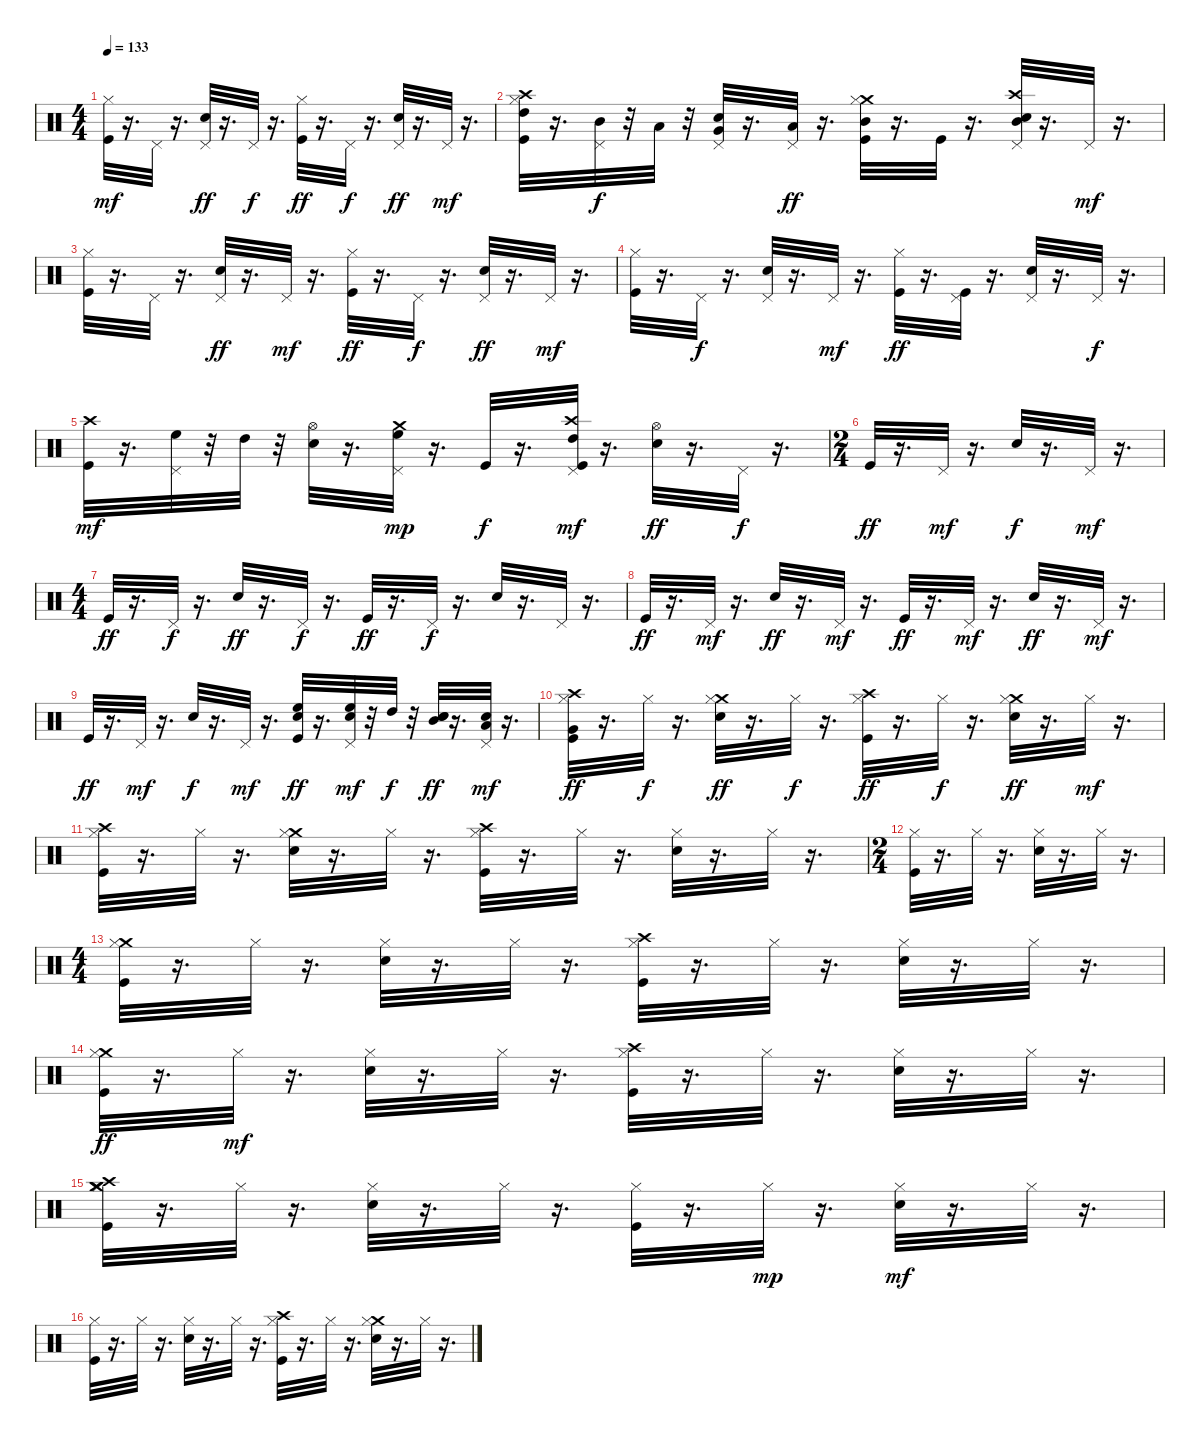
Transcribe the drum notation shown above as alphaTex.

\track "" {instrument percussion}
\staff {score}
\articulation defaults
\ts (4 4)
\tempo 133
\clef neutral
\ks c
("Hi-Hat (closed)" "Kick (hit)").32{dy mf} r.16{d} "Pedal Hi-Hat (hit)".32 r.16{d} ("Pedal Hi-Hat (hit)" "Snare (hit) 2").32{dy ff} r.16{d} "Pedal Hi-Hat (hit)".32{dy f} r.16{d} ("Hi-Hat (closed)" "Kick (hit)").32{dy ff} r.16{d} "Pedal Hi-Hat (hit)".32{dy f} r.16{d} ("Pedal Hi-Hat (hit)" "Snare (hit) 2").32{dy ff} r.16{d} "Pedal Hi-Hat (hit)".32{dy mf} r.16{d} |
("Crash high (hit)" "High Tom (hit)" "Hi-Hat (closed)" "Kick (hit)").32 r.16{d} ("Pedal Hi-Hat (hit)" "Mid Tom (hit)").32{dy f} r.32 "Low Tom (hit)".32 r.32 ("Very Low Tom (hit)" "Pedal Hi-Hat (hit)" "Snare (hit) 2").32 r.16{d} ("Pedal Hi-Hat (hit)" "Low Tom (hit)").32{dy ff} r.16{d} ("Crash medium (hit)" "Mid Tom (hit)" "Hi-Hat (closed)" "Kick (hit)").32 r.16{d} "Kick (hit)".32 r.16{d} ("Crash high (hit)" "Mid Tom (hit)" "Pedal Hi-Hat (hit)" "Snare (hit) 2").32 r.16{d} "Pedal Hi-Hat (hit)".32{dy mf} r.16{d} |
("Hi-Hat (closed)" "Kick (hit)").32 r.16{d} "Pedal Hi-Hat (hit)".32 r.16{d} ("Pedal Hi-Hat (hit)" "Snare (hit) 2").32{dy ff} r.16{d} "Pedal Hi-Hat (hit)".32{dy mf} r.16{d} ("Hi-Hat (closed)" "Kick (hit)").32{dy ff} r.16{d} "Pedal Hi-Hat (hit)".32{dy f} r.16{d} ("Pedal Hi-Hat (hit)" "Snare (hit) 2").32{dy ff} r.16{d} "Pedal Hi-Hat (hit)".32{dy mf} r.16{d} |
("Hi-Hat (closed)" "Kick (hit)").32 r.16{d} "Pedal Hi-Hat (hit)".32{dy f} r.16{d} ("Pedal Hi-Hat (hit)" "Snare (hit) 2").32 r.16{d} "Pedal Hi-Hat (hit)".32{dy mf} r.16{d} ("Hi-Hat (closed)" "Kick (hit)").32{dy ff} r.16{d} ("Pedal Hi-Hat (hit)" "Kick (hit)").32 r.16{d} ("Pedal Hi-Hat (hit)" "Snare (hit) 2").32 r.16{d} "Pedal Hi-Hat (hit)".32{dy f} r.16{d} |
("Crash high (hit)" "Kick (hit)").32{dy mf} r.16{d} ("Pedal Hi-Hat (hit)" "High Floor Tom (hit)").32 r.32 "High Tom (hit)".32 r.32 ("Hi-Hat (open)" "Snare (hit) 2").32 r.16{d} ("Pedal Hi-Hat (hit)" "Crash medium (hit)" "High Floor Tom (hit)").32{dy mp} r.16{d} "Kick (hit)".32{dy f} r.16{d} ("Pedal Hi-Hat (hit)" "Crash high (hit)" "High Tom (hit)" "Kick (hit)").32{dy mf} r.16{d} ("Hi-Hat (open)" "Snare (hit) 2").32{dy ff} r.16{d} "Pedal Hi-Hat (hit)".32{dy f} r.16{d} |
\ts (2 4)
"Kick (hit)".32{dy ff} r.16{d} "Pedal Hi-Hat (hit)".32{dy mf} r.16{d} "Snare (hit) 2".32{dy f} r.16{d} "Pedal Hi-Hat (hit)".32{dy mf} r.16{d} |
\ts (4 4)
"Kick (hit)".32{dy ff} r.16{d} "Pedal Hi-Hat (hit)".32{dy f} r.16{d} "Snare (hit) 2".32{dy ff} r.16{d} "Pedal Hi-Hat (hit)".32{dy f} r.16{d} "Kick (hit)".32{dy ff} r.16{d} "Pedal Hi-Hat (hit)".32{dy f} r.16{d} "Snare (hit) 2".32 r.16{d} "Pedal Hi-Hat (hit)".32 r.16{d} |
"Kick (hit)".32{dy ff} r.16{d} "Pedal Hi-Hat (hit)".32{dy mf} r.16{d} "Snare (hit) 2".32{dy ff} r.16{d} "Pedal Hi-Hat (hit)".32{dy mf} r.16{d} "Kick (hit)".32{dy ff} r.16{d} "Pedal Hi-Hat (hit)".32{dy mf} r.16{d} "Snare (hit) 2".32{dy ff} r.16{d} "Pedal Hi-Hat (hit)".32{dy mf} r.16{d} |
"Kick (hit)".32{dy ff} r.16{d} "Pedal Hi-Hat (hit)".32{dy mf} r.16{d} "Snare (hit) 2".32{dy f} r.16{d} "Pedal Hi-Hat (hit)".32{dy mf} r.16{d} ("High Floor Tom (hit)" "Snare (hit) 2" "Kick (hit)").32{dy ff} r.16{d} ("High Floor Tom (hit)" "Snare (hit) 2" "Pedal Hi-Hat (hit)").32{dy mf} r.32 "High Tom (hit)".32{dy f} r.32 ("Mid Tom (hit)" "Snare (hit) 2" "Snare (hit) 2").32{dy ff} r.16{d} ("Low Tom (hit)" "Snare (hit) 2" "Pedal Hi-Hat (hit)").32{dy mf} r.16{d} |
("Crash high (hit)" "Very Low Tom (hit)" "Kick (hit)" "Hi-Hat (closed)").32{dy ff} r.16{d} "Hi-Hat (closed)".32{dy f} r.16{d} ("Crash medium (hit)" "Snare (hit) 2" "Hi-Hat (closed)").32{dy ff} r.16{d} "Hi-Hat (closed)".32{dy f} r.16{d} ("Crash high (hit)" "Kick (hit)" "Hi-Hat (closed)").32{dy ff} r.16{d} "Hi-Hat (closed)".32{dy f} r.16{d} ("Crash medium (hit)" "Snare (hit) 2" "Hi-Hat (closed)").32{dy ff} r.16{d} "Hi-Hat (closed)".32{dy mf} r.16{d} |
("Crash high (hit)" "Kick (hit)" "Hi-Hat (closed)").32 r.16{d} "Hi-Hat (closed)".32 r.16{d} ("Crash medium (hit)" "Snare (hit) 2" "Hi-Hat (closed)").32 r.16{d} "Hi-Hat (closed)".32 r.16{d} ("Crash high (hit)" "Kick (hit)" "Hi-Hat (closed)").32 r.16{d} "Hi-Hat (closed)".32 r.16{d} ("Snare (hit) 2" "Hi-Hat (closed)").32 r.16{d} "Hi-Hat (closed)".32 r.16{d} |
\ts (2 4)
("Kick (hit)" "Hi-Hat (closed)").32 r.16{d} "Hi-Hat (closed)".32 r.16{d} ("Snare (hit) 2" "Hi-Hat (closed)").32 r.16{d} "Hi-Hat (closed)".32 r.16{d} |
\ts (4 4)
("Crash medium (hit)" "Kick (hit)" "Hi-Hat (closed)").32 r.16{d} "Hi-Hat (closed)".32 r.16{d} ("Snare (hit) 2" "Hi-Hat (closed)").32 r.16{d} "Hi-Hat (closed)".32 r.16{d} ("Crash high (hit)" "Kick (hit)" "Hi-Hat (closed)").32 r.16{d} "Hi-Hat (closed)".32 r.16{d} ("Snare (hit) 2" "Hi-Hat (closed)").32 r.16{d} "Hi-Hat (closed)".32 r.16{d} |
("Crash medium (hit)" "Kick (hit)" "Hi-Hat (closed)").32{dy ff} r.16{d} "Hi-Hat (closed)".32{dy mf} r.16{d} ("Snare (hit) 2" "Hi-Hat (closed)").32 r.16{d} "Hi-Hat (closed)".32 r.16{d} ("Crash high (hit)" "Kick (hit)" "Hi-Hat (closed)").32 r.16{d} "Hi-Hat (closed)".32 r.16{d} ("Snare (hit) 2" "Hi-Hat (closed)").32 r.16{d} "Hi-Hat (closed)".32 r.16{d} |
("Crash medium (hit)" "Crash medium (hit)" "Crash high (hit)" "Kick (hit)" "Hi-Hat (closed)").32 r.16{d} "Hi-Hat (closed)".32 r.16{d} ("Snare (hit) 2" "Hi-Hat (closed)").32 r.16{d} "Hi-Hat (closed)".32 r.16{d} ("Kick (hit)" "Hi-Hat (closed)").32 r.16{d} "Hi-Hat (closed)".32{dy mp} r.16{d} ("Snare (hit) 2" "Hi-Hat (closed)").32{dy mf} r.16{d} "Hi-Hat (closed)".32 r.16{d} |
("Kick (hit)" "Hi-Hat (closed)").32 r.16{d} "Hi-Hat (closed)".32 r.16{d} ("Snare (hit) 2" "Hi-Hat (closed)").32 r.16{d} "Hi-Hat (closed)".32 r.16{d} ("Crash high (hit)" "Kick (hit)" "Hi-Hat (closed)").32 r.16{d} "Hi-Hat (closed)".32 r.16{d} ("Crash medium (hit)" "Snare (hit) 2" "Hi-Hat (closed)").32 r.16{d} "Hi-Hat (closed)".32 r.16{d}
